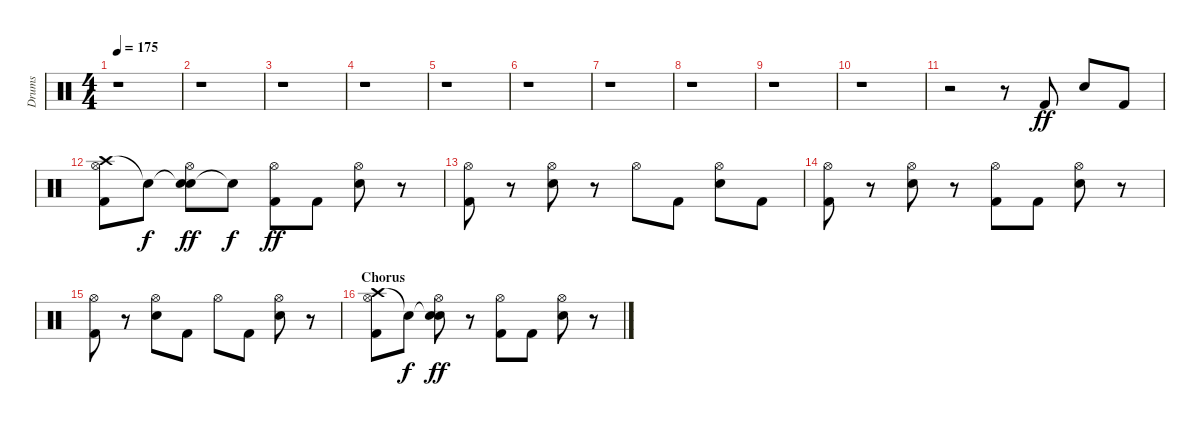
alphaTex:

\track ("Drums" "Drums") {instrument percussion}
\staff {score}
\articulation defaults
\ts (4 4)
\tempo 175
\clef neutral
\ks c
r.1{dy fff} |
r.1 |
r.1 |
r.1 |
r.1 |
r.1 |
r.1 |
r.1 |
r.1 |
r.1 |
r.2 r.8 "Kick (hit) 2".8{dy ff} "Electric Snare (hit)".8 "Kick (hit) 2".8 |
("Crash high (hit)" "Hi-Hat (open)" "Kick (hit) 2").8 "Snare (hit)"{t}.8{dy f} ("Snare (hit)"{t} "Hi-Hat (open)" "Electric Snare (hit)").8{dy ff} "Snare (hit)"{t}.8{dy f} ("Hi-Hat (open)" "Kick (hit) 2").8{dy ff} "Kick (hit) 2".8 ("Hi-Hat (open)" "Electric Snare (hit)").8 r.8 |
("Hi-Hat (open)" "Kick (hit) 2").8 r.8 ("Hi-Hat (open)" "Electric Snare (hit)").8 r.8 "Hi-Hat (open)".8 "Kick (hit) 2".8 ("Hi-Hat (open)" "Electric Snare (hit)").8 "Kick (hit) 2".8 |
("Hi-Hat (open)" "Kick (hit) 2").8 r.8 ("Hi-Hat (open)" "Electric Snare (hit)").8 r.8 ("Hi-Hat (open)" "Kick (hit) 2").8 "Kick (hit) 2".8 ("Hi-Hat (open)" "Electric Snare (hit)").8 r.8 |
("Hi-Hat (open)" "Kick (hit) 2").8 r.8 ("Hi-Hat (open)" "Electric Snare (hit)").8 "Kick (hit) 2".8 "Hi-Hat (open)".8 "Kick (hit) 2".8 ("Hi-Hat (open)" "Electric Snare (hit)").8 r.8 |
\section ("" "Chorus")
("Crash high (hit)" "Hi-Hat (open)" "Kick (hit) 2").8 "Snare (hit)"{t}.8{dy f} ("Snare (hit)"{t} "Hi-Hat (open)" "Electric Snare (hit)").8{dy ff} r.8 ("Hi-Hat (open)" "Kick (hit) 2").8 "Kick (hit) 2".8 ("Hi-Hat (open)" "Electric Snare (hit)").8 r.8
